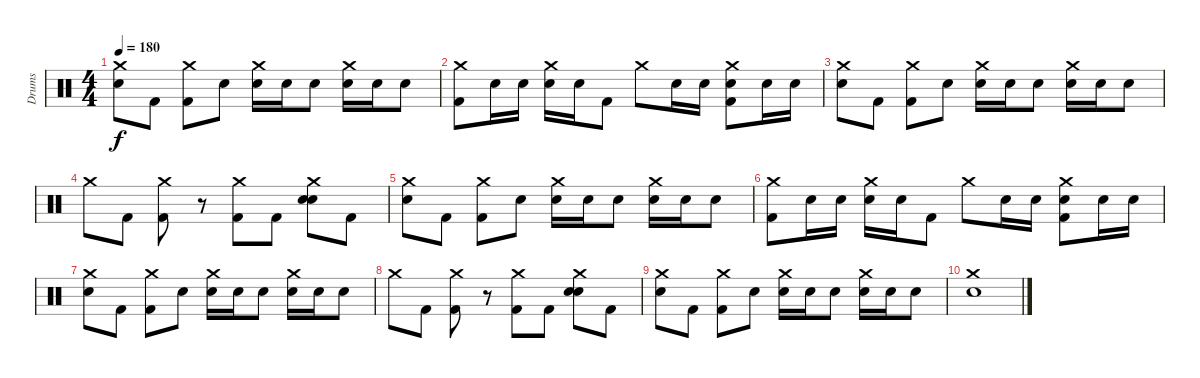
\track ("Drums" "Drums") {instrument percussion}
\staff {score}
\articulation defaults
\ts (4 4)
\tempo 180
\clef neutral
\ks c
("Crash medium (hit)" "Snare (hit) 2").8{dy f} "Kick (hit) 2".8 ("Crash medium (hit)" "Kick (hit) 2").8 "Snare (hit) 2".8 ("Crash medium (hit)" "Snare (hit) 2").16 "Snare (hit) 2".16 "Snare (hit) 2".8 ("Crash medium (hit)" "Snare (hit) 2").16 "Snare (hit) 2".16 "Snare (hit) 2".8 |
("Crash medium (hit)" "Kick (hit) 2").8 "Snare (hit) 2".16 "Snare (hit) 2".16 ("Crash medium (hit)" "Snare (hit) 2").16 "Snare (hit) 2".16 "Kick (hit) 2".8 "Crash medium (hit)".8 "Snare (hit) 2".16 "Snare (hit) 2".16 ("Crash medium (hit)" "Snare (hit) 2" "Kick (hit) 2").8 "Snare (hit) 2".16 "Snare (hit) 2".16 |
("Crash medium (hit)" "Snare (hit) 2").8 "Kick (hit) 2".8 ("Crash medium (hit)" "Kick (hit) 2").8 "Snare (hit) 2".8 ("Crash medium (hit)" "Snare (hit) 2").16 "Snare (hit) 2".16 "Snare (hit) 2".8 ("Crash medium (hit)" "Snare (hit) 2").16 "Snare (hit) 2".16 "Snare (hit) 2".8 |
"Crash medium (hit)".8 "Kick (hit) 2".8 ("Crash medium (hit)" "Kick (hit) 2").8 r.8 ("Crash medium (hit)" "Kick (hit) 2").8 "Kick (hit) 2".8 ("Crash medium (hit)" "Snare (hit) 2" "Snare (hit) 2").8 "Kick (hit) 2".8 |
("Crash medium (hit)" "Snare (hit) 2").8 "Kick (hit) 2".8 ("Crash medium (hit)" "Kick (hit) 2").8 "Snare (hit) 2".8 ("Crash medium (hit)" "Snare (hit) 2").16 "Snare (hit) 2".16 "Snare (hit) 2".8 ("Crash medium (hit)" "Snare (hit) 2").16 "Snare (hit) 2".16 "Snare (hit) 2".8 |
("Crash medium (hit)" "Kick (hit) 2").8 "Snare (hit) 2".16 "Snare (hit) 2".16 ("Crash medium (hit)" "Snare (hit) 2").16 "Snare (hit) 2".16 "Kick (hit) 2".8 "Crash medium (hit)".8 "Snare (hit) 2".16 "Snare (hit) 2".16 ("Crash medium (hit)" "Snare (hit) 2" "Kick (hit) 2").8 "Snare (hit) 2".16 "Snare (hit) 2".16 |
("Crash medium (hit)" "Snare (hit) 2").8 "Kick (hit) 2".8 ("Crash medium (hit)" "Kick (hit) 2").8 "Snare (hit) 2".8 ("Crash medium (hit)" "Snare (hit) 2").16 "Snare (hit) 2".16 "Snare (hit) 2".8 ("Crash medium (hit)" "Snare (hit) 2").16 "Snare (hit) 2".16 "Snare (hit) 2".8 |
"Crash medium (hit)".8 "Kick (hit) 2".8 ("Crash medium (hit)" "Kick (hit) 2").8 r.8 ("Crash medium (hit)" "Kick (hit) 2").8 "Kick (hit) 2".8 ("Crash medium (hit)" "Snare (hit) 2" "Snare (hit) 2").8 "Kick (hit) 2".8 |
("Crash medium (hit)" "Snare (hit) 2").8 "Kick (hit) 2".8 ("Crash medium (hit)" "Kick (hit) 2").8 "Snare (hit) 2".8 ("Crash medium (hit)" "Snare (hit) 2").16 "Snare (hit) 2".16 "Snare (hit) 2".8 ("Crash medium (hit)" "Snare (hit) 2").16 "Snare (hit) 2".16 "Snare (hit) 2".8 |
("Crash medium (hit)" "Snare (hit) 2").1
